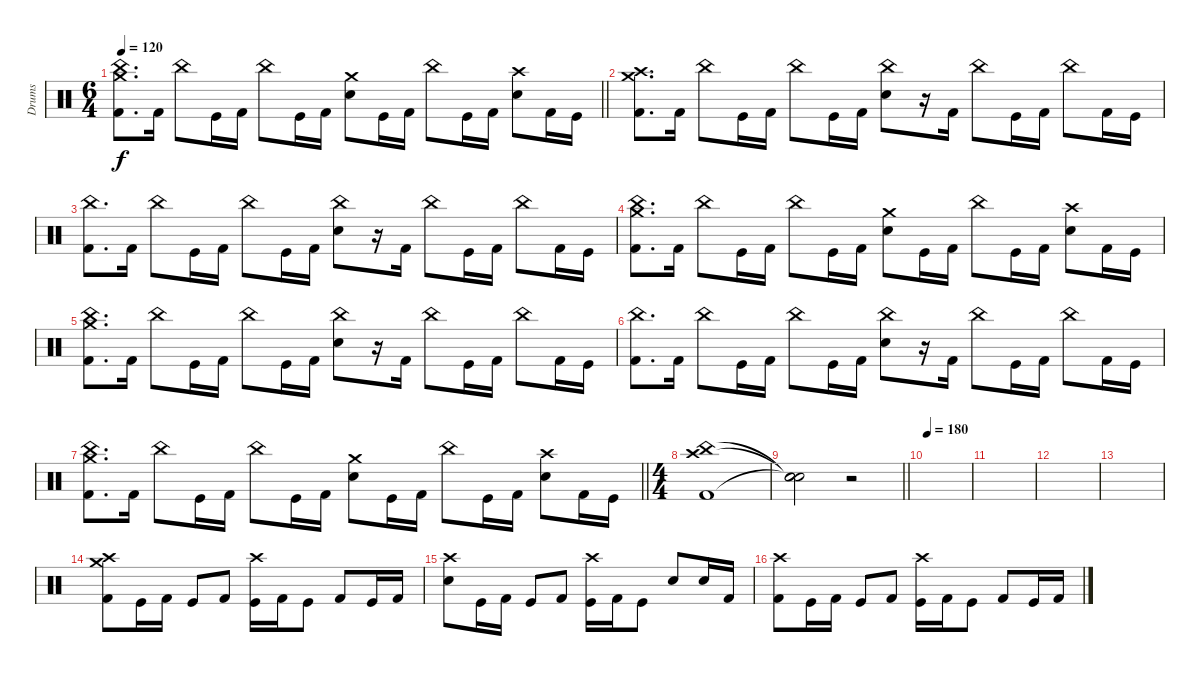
\track ("Drums" "Drums") {instrument percussion}
\staff {score}
\articulation defaults
\ts (6 4)
\tempo 120
\clef neutral
\barLineRight lightlight
\ks c
("Crash medium (hit)" "China (hit)" "Kick (hit) 2").8{d dy f} "Kick (hit) 2".16 "China (hit)".8 "Kick (hit)".16 "Kick (hit) 2".16 "China (hit)".8 "Kick (hit)".16 "Kick (hit) 2".16 ("Crash medium (hit)" "Electric Snare (hit)").8 "Kick (hit)".16 "Kick (hit) 2".16 "China (hit)".8 "Kick (hit)".16 "Kick (hit) 2".16 ("Crash high (hit)" "Electric Snare (hit)").8 "Kick (hit) 2".16 "Kick (hit)".16 |
("Crash medium (hit)" "Crash high (hit)" "Kick (hit) 2").8{d} "Kick (hit) 2".16 "China (hit)".8 "Kick (hit)".16 "Kick (hit) 2".16 "China (hit)".8 "Kick (hit)".16 "Kick (hit) 2".16 ("China (hit)" "Electric Snare (hit)").8 r.16 "Kick (hit) 2".16 "China (hit)".8 "Kick (hit)".16 "Kick (hit) 2".16 "China (hit)".8 "Kick (hit) 2".16 "Kick (hit)".16 |
("China (hit)" "Kick (hit) 2").8{d} "Kick (hit) 2".16 "China (hit)".8 "Kick (hit)".16 "Kick (hit) 2".16 "China (hit)".8 "Kick (hit)".16 "Kick (hit) 2".16 ("China (hit)" "Electric Snare (hit)").8 r.16 "Kick (hit) 2".16 "China (hit)".8 "Kick (hit)".16 "Kick (hit) 2".16 "China (hit)".8 "Kick (hit) 2".16 "Kick (hit)".16 |
("Crash medium (hit)" "China (hit)" "Kick (hit) 2").8{d} "Kick (hit) 2".16 "China (hit)".8 "Kick (hit)".16 "Kick (hit) 2".16 "China (hit)".8 "Kick (hit)".16 "Kick (hit) 2".16 ("Crash medium (hit)" "Electric Snare (hit)").8 "Kick (hit)".16 "Kick (hit) 2".16 "China (hit)".8 "Kick (hit)".16 "Kick (hit) 2".16 ("Crash high (hit)" "Electric Snare (hit)").8 "Kick (hit) 2".16 "Kick (hit)".16 |
("Crash medium (hit)" "China (hit)" "Kick (hit) 2").8{d} "Kick (hit) 2".16 "China (hit)".8 "Kick (hit)".16 "Kick (hit) 2".16 "China (hit)".8 "Kick (hit)".16 "Kick (hit) 2".16 ("China (hit)" "Electric Snare (hit)").8 r.16 "Kick (hit) 2".16 "China (hit)".8 "Kick (hit)".16 "Kick (hit) 2".16 "China (hit)".8 "Kick (hit) 2".16 "Kick (hit)".16 |
("China (hit)" "Kick (hit) 2").8{d} "Kick (hit) 2".16 "China (hit)".8 "Kick (hit)".16 "Kick (hit) 2".16 "China (hit)".8 "Kick (hit)".16 "Kick (hit) 2".16 ("China (hit)" "Electric Snare (hit)").8 r.16 "Kick (hit) 2".16 "China (hit)".8 "Kick (hit)".16 "Kick (hit) 2".16 "China (hit)".8 "Kick (hit) 2".16 "Kick (hit)".16 |
\barLineRight lightlight
("Crash medium (hit)" "China (hit)" "Kick (hit) 2").8{d} "Kick (hit) 2".16 "China (hit)".8 "Kick (hit)".16 "Kick (hit) 2".16 "China (hit)".8 "Kick (hit)".16 "Kick (hit) 2".16 ("Crash medium (hit)" "Electric Snare (hit)").8 "Kick (hit)".16 "Kick (hit) 2".16 "China (hit)".8 "Kick (hit)".16 "Kick (hit) 2".16 ("Crash high (hit)" "Electric Snare (hit)").8 "Kick (hit) 2".16 "Kick (hit)".16 |
\ts (4 4)
("Crash high (hit)" "China (hit)" "Kick (hit) 2").1 |
\barLineRight lightlight
("Snare (hit)"{t} "Snare (hit)"{t} "Snare (hit)"{t}).2 r.2 |
\tempo 180
|
|
|
|
("Crash medium (hit)" "Crash high (hit)" "Kick (hit) 2").8 "Kick (hit)".16 "Kick (hit) 2".16 "Kick (hit)".8 "Kick (hit) 2".8 ("Crash high (hit)" "Kick (hit)").16 "Kick (hit) 2".16 "Kick (hit)".8 "Kick (hit) 2".8 "Kick (hit)".16 "Kick (hit) 2".16 |
("Crash high (hit)" "Electric Snare (hit)").8 "Kick (hit)".16 "Kick (hit) 2".16 "Kick (hit)".8 "Kick (hit) 2".8 ("Crash high (hit)" "Kick (hit)").16 "Kick (hit) 2".16 "Kick (hit)".8 "Electric Snare (hit)".8 "Electric Snare (hit)".16 "Kick (hit) 2".16 |
("Crash high (hit)" "Kick (hit) 2").8 "Kick (hit)".16 "Kick (hit) 2".16 "Kick (hit)".8 "Kick (hit) 2".8 ("Crash high (hit)" "Kick (hit)").16 "Kick (hit) 2".16 "Kick (hit)".8 "Kick (hit) 2".8 "Kick (hit)".16 "Kick (hit) 2".16
